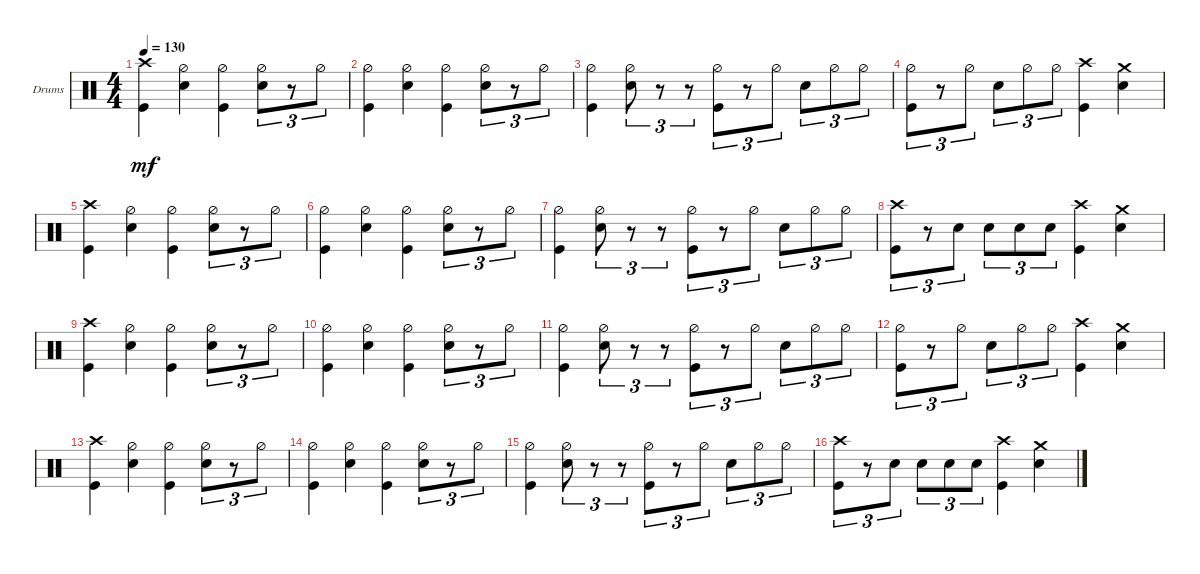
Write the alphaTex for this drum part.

\bracketExtendMode groupsimilarinstruments
\firstSystemTrackNameOrientation horizontal
\otherSystemsTrackNameOrientation horizontal
\track ("Drums Ghoul" "Drums") {instrument percussion}
\staff {score}
\articulation defaults
\ts (4 4)
\tempo 130
\clef neutral
\ks c
("Kick (hit)" "Crash high (hit)").4{dy mf} ("Snare (hit) 2" "Hi-Hat (half)").4 ("Kick (hit)" "Hi-Hat (half)").4 ("Snare (hit) 2" "Hi-Hat (half)").8{tu (3 2)} r.8{tu (3 2)} "Hi-Hat (half)".8{tu (3 2)} |
("Kick (hit)" "Hi-Hat (half)").4 ("Snare (hit) 2" "Hi-Hat (half)").4 ("Kick (hit)" "Hi-Hat (half)").4 ("Snare (hit) 2" "Hi-Hat (half)").8{tu (3 2)} r.8{tu (3 2)} "Hi-Hat (half)".8{tu (3 2)} |
("Kick (hit)" "Hi-Hat (half)").4 ("Snare (hit) 2" "Hi-Hat (half)").8{tu (3 2)} r.8{tu (3 2)} r.8{tu (3 2)} ("Kick (hit)" "Hi-Hat (half)").8{tu (3 2)} r.8{tu (3 2)} "Hi-Hat (half)".8{tu (3 2)} "Snare (hit) 2".8{tu (3 2)} "Hi-Hat (half)".8{tu (3 2)} "Hi-Hat (half)".8{tu (3 2)} |
("Kick (hit)" "Hi-Hat (half)").8{tu (3 2)} r.8{tu (3 2)} "Hi-Hat (half)".8{tu (3 2)} "Snare (hit) 2".8{tu (3 2)} "Hi-Hat (half)".8{tu (3 2)} "Hi-Hat (half)".8{tu (3 2)} ("Kick (hit)" "Crash high (hit)").4 ("Snare (hit) 2" "Crash medium (hit)").4 |
("Kick (hit)" "Crash high (hit)").4 ("Snare (hit) 2" "Hi-Hat (half)").4 ("Kick (hit)" "Hi-Hat (half)").4 ("Snare (hit) 2" "Hi-Hat (half)").8{tu (3 2)} r.8{tu (3 2)} "Hi-Hat (half)".8{tu (3 2)} |
("Kick (hit)" "Hi-Hat (half)").4 ("Snare (hit) 2" "Hi-Hat (half)").4 ("Kick (hit)" "Hi-Hat (half)").4 ("Snare (hit) 2" "Hi-Hat (half)").8{tu (3 2)} r.8{tu (3 2)} "Hi-Hat (half)".8{tu (3 2)} |
("Kick (hit)" "Hi-Hat (half)").4 ("Snare (hit) 2" "Hi-Hat (half)").8{tu (3 2)} r.8{tu (3 2)} r.8{tu (3 2)} ("Kick (hit)" "Hi-Hat (half)").8{tu (3 2)} r.8{tu (3 2)} "Hi-Hat (half)".8{tu (3 2)} "Snare (hit) 2".8{tu (3 2)} "Hi-Hat (half)".8{tu (3 2)} "Hi-Hat (half)".8{tu (3 2)} |
("Kick (hit)" "Crash high (hit)").8{tu (3 2)} r.8{tu (3 2)} "Snare (hit) 2".8{tu (3 2)} "Snare (hit) 2".8{tu (3 2)} "Snare (hit) 2".8{tu (3 2)} "Snare (hit) 2".8{tu (3 2)} ("Kick (hit)" "Crash high (hit)").4 ("Snare (hit) 2" "Crash medium (hit)").4 |
("Kick (hit)" "Crash high (hit)").4 ("Snare (hit) 2" "Hi-Hat (half)").4 ("Kick (hit)" "Hi-Hat (half)").4 ("Snare (hit) 2" "Hi-Hat (half)").8{tu (3 2)} r.8{tu (3 2)} "Hi-Hat (half)".8{tu (3 2)} |
("Kick (hit)" "Hi-Hat (half)").4 ("Snare (hit) 2" "Hi-Hat (half)").4 ("Kick (hit)" "Hi-Hat (half)").4 ("Snare (hit) 2" "Hi-Hat (half)").8{tu (3 2)} r.8{tu (3 2)} "Hi-Hat (half)".8{tu (3 2)} |
("Kick (hit)" "Hi-Hat (half)").4 ("Snare (hit) 2" "Hi-Hat (half)").8{tu (3 2)} r.8{tu (3 2)} r.8{tu (3 2)} ("Kick (hit)" "Hi-Hat (half)").8{tu (3 2)} r.8{tu (3 2)} "Hi-Hat (half)".8{tu (3 2)} "Snare (hit) 2".8{tu (3 2)} "Hi-Hat (half)".8{tu (3 2)} "Hi-Hat (half)".8{tu (3 2)} |
("Kick (hit)" "Hi-Hat (half)").8{tu (3 2)} r.8{tu (3 2)} "Hi-Hat (half)".8{tu (3 2)} "Snare (hit) 2".8{tu (3 2)} "Hi-Hat (half)".8{tu (3 2)} "Hi-Hat (half)".8{tu (3 2)} ("Kick (hit)" "Crash high (hit)").4 ("Snare (hit) 2" "Crash medium (hit)").4 |
("Kick (hit)" "Crash high (hit)").4 ("Snare (hit) 2" "Hi-Hat (half)").4 ("Kick (hit)" "Hi-Hat (half)").4 ("Snare (hit) 2" "Hi-Hat (half)").8{tu (3 2)} r.8{tu (3 2)} "Hi-Hat (half)".8{tu (3 2)} |
("Kick (hit)" "Hi-Hat (half)").4 ("Snare (hit) 2" "Hi-Hat (half)").4 ("Kick (hit)" "Hi-Hat (half)").4 ("Snare (hit) 2" "Hi-Hat (half)").8{tu (3 2)} r.8{tu (3 2)} "Hi-Hat (half)".8{tu (3 2)} |
("Kick (hit)" "Hi-Hat (half)").4 ("Snare (hit) 2" "Hi-Hat (half)").8{tu (3 2)} r.8{tu (3 2)} r.8{tu (3 2)} ("Kick (hit)" "Hi-Hat (half)").8{tu (3 2)} r.8{tu (3 2)} "Hi-Hat (half)".8{tu (3 2)} "Snare (hit) 2".8{tu (3 2)} "Hi-Hat (half)".8{tu (3 2)} "Hi-Hat (half)".8{tu (3 2)} |
("Kick (hit)" "Crash high (hit)").8{tu (3 2)} r.8{tu (3 2)} "Snare (hit) 2".8{tu (3 2)} "Snare (hit) 2".8{tu (3 2)} "Snare (hit) 2".8{tu (3 2)} "Snare (hit) 2".8{tu (3 2)} ("Kick (hit)" "Crash high (hit)").4 ("Snare (hit) 2" "Crash medium (hit)").4
